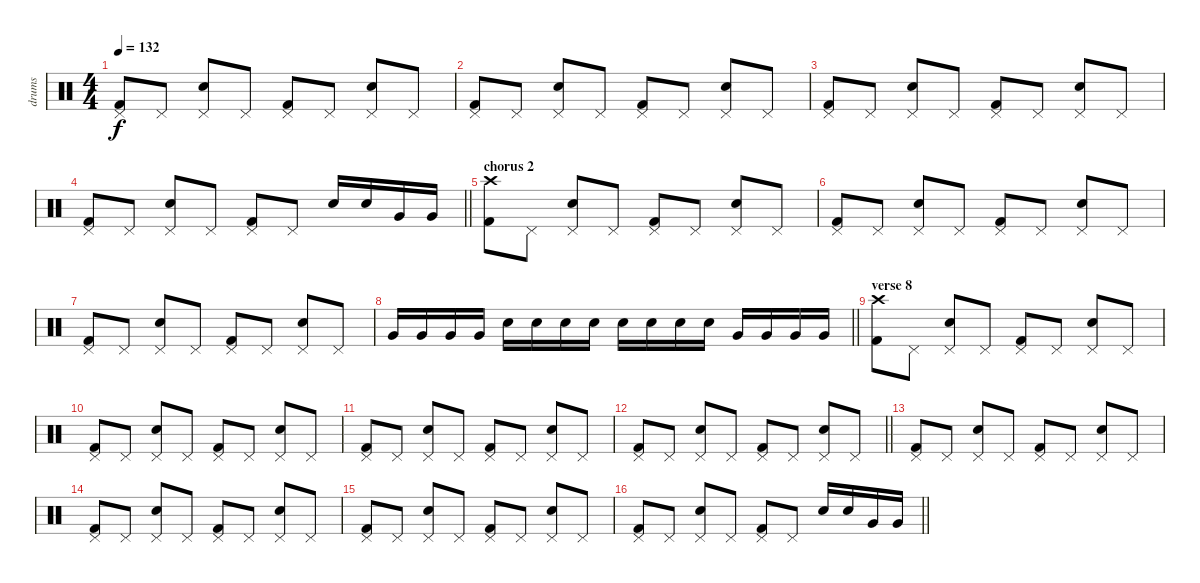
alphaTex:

\track ("drums" "drums") {instrument percussion}
\staff {score}
\articulation defaults
\ts (4 4)
\tempo 132
\clef neutral
\ks c
("Kick (hit) 2" "Pedal Hi-Hat (hit)").8{dy f} "Pedal Hi-Hat (hit)".8 ("Electric Snare (hit)" "Pedal Hi-Hat (hit)").8 "Pedal Hi-Hat (hit)".8 ("Kick (hit) 2" "Pedal Hi-Hat (hit)").8 "Pedal Hi-Hat (hit)".8 ("Electric Snare (hit)" "Pedal Hi-Hat (hit)").8 "Pedal Hi-Hat (hit)".8 |
("Kick (hit) 2" "Pedal Hi-Hat (hit)").8 "Pedal Hi-Hat (hit)".8 ("Electric Snare (hit)" "Pedal Hi-Hat (hit)").8 "Pedal Hi-Hat (hit)".8 ("Kick (hit) 2" "Pedal Hi-Hat (hit)").8 "Pedal Hi-Hat (hit)".8 ("Electric Snare (hit)" "Pedal Hi-Hat (hit)").8 "Pedal Hi-Hat (hit)".8 |
("Kick (hit) 2" "Pedal Hi-Hat (hit)").8 "Pedal Hi-Hat (hit)".8 ("Electric Snare (hit)" "Pedal Hi-Hat (hit)").8 "Pedal Hi-Hat (hit)".8 ("Kick (hit) 2" "Pedal Hi-Hat (hit)").8 "Pedal Hi-Hat (hit)".8 ("Electric Snare (hit)" "Pedal Hi-Hat (hit)").8 "Pedal Hi-Hat (hit)".8 |
\barLineRight lightlight
("Kick (hit) 2" "Pedal Hi-Hat (hit)").8 "Pedal Hi-Hat (hit)".8 ("Electric Snare (hit)" "Pedal Hi-Hat (hit)").8 "Pedal Hi-Hat (hit)".8 ("Kick (hit) 2" "Pedal Hi-Hat (hit)").8 "Pedal Hi-Hat (hit)".8 "Electric Snare (hit)".16 "Electric Snare (hit)".16 "Very Low Tom (hit)".16 "Very Low Tom (hit)".16 |
\section ("" "chorus 2")
("Kick (hit) 2" "Crash high (hit)").8 "Pedal Hi-Hat (hit)".8 ("Electric Snare (hit)" "Pedal Hi-Hat (hit)").8 "Pedal Hi-Hat (hit)".8 ("Kick (hit) 2" "Pedal Hi-Hat (hit)").8 "Pedal Hi-Hat (hit)".8 ("Electric Snare (hit)" "Pedal Hi-Hat (hit)").8 "Pedal Hi-Hat (hit)".8 |
("Kick (hit) 2" "Pedal Hi-Hat (hit)").8 "Pedal Hi-Hat (hit)".8 ("Electric Snare (hit)" "Pedal Hi-Hat (hit)").8 "Pedal Hi-Hat (hit)".8 ("Kick (hit) 2" "Pedal Hi-Hat (hit)").8 "Pedal Hi-Hat (hit)".8 ("Electric Snare (hit)" "Pedal Hi-Hat (hit)").8 "Pedal Hi-Hat (hit)".8 |
("Kick (hit) 2" "Pedal Hi-Hat (hit)").8 "Pedal Hi-Hat (hit)".8 ("Electric Snare (hit)" "Pedal Hi-Hat (hit)").8 "Pedal Hi-Hat (hit)".8 ("Kick (hit) 2" "Pedal Hi-Hat (hit)").8 "Pedal Hi-Hat (hit)".8 ("Electric Snare (hit)" "Pedal Hi-Hat (hit)").8 "Pedal Hi-Hat (hit)".8 |
\barLineRight lightlight "Very Low Tom (hit)".16 "Very Low Tom (hit)".16 "Very Low Tom (hit)".16 "Very Low Tom (hit)".16 "Electric Snare (hit)".16 "Electric Snare (hit)".16 "Electric Snare (hit)".16 "Electric Snare (hit)".16 "Electric Snare (hit)".16 "Electric Snare (hit)".16 "Electric Snare (hit)".16 "Electric Snare (hit)".16 "Very Low Tom (hit)".16 "Very Low Tom (hit)".16 "Very Low Tom (hit)".16 "Very Low Tom (hit)".16
|
\section ("" "verse 8")
("Kick (hit) 2" "Crash high (hit)").8 "Pedal Hi-Hat (hit)".8 ("Electric Snare (hit)" "Pedal Hi-Hat (hit)").8 "Pedal Hi-Hat (hit)".8 ("Kick (hit) 2" "Pedal Hi-Hat (hit)").8 "Pedal Hi-Hat (hit)".8 ("Electric Snare (hit)" "Pedal Hi-Hat (hit)").8 "Pedal Hi-Hat (hit)".8 |
("Kick (hit) 2" "Pedal Hi-Hat (hit)").8 "Pedal Hi-Hat (hit)".8 ("Electric Snare (hit)" "Pedal Hi-Hat (hit)").8 "Pedal Hi-Hat (hit)".8 ("Kick (hit) 2" "Pedal Hi-Hat (hit)").8 "Pedal Hi-Hat (hit)".8 ("Electric Snare (hit)" "Pedal Hi-Hat (hit)").8 "Pedal Hi-Hat (hit)".8 |
("Kick (hit) 2" "Pedal Hi-Hat (hit)").8 "Pedal Hi-Hat (hit)".8 ("Electric Snare (hit)" "Pedal Hi-Hat (hit)").8 "Pedal Hi-Hat (hit)".8 ("Kick (hit) 2" "Pedal Hi-Hat (hit)").8 "Pedal Hi-Hat (hit)".8 ("Electric Snare (hit)" "Pedal Hi-Hat (hit)").8 "Pedal Hi-Hat (hit)".8 |
\barLineRight lightlight
("Kick (hit) 2" "Pedal Hi-Hat (hit)").8 "Pedal Hi-Hat (hit)".8 ("Electric Snare (hit)" "Pedal Hi-Hat (hit)").8 "Pedal Hi-Hat (hit)".8 ("Kick (hit) 2" "Pedal Hi-Hat (hit)").8 "Pedal Hi-Hat (hit)".8 ("Electric Snare (hit)" "Pedal Hi-Hat (hit)").8 "Pedal Hi-Hat (hit)".8 |
("Kick (hit) 2" "Pedal Hi-Hat (hit)").8 "Pedal Hi-Hat (hit)".8 ("Electric Snare (hit)" "Pedal Hi-Hat (hit)").8 "Pedal Hi-Hat (hit)".8 ("Kick (hit) 2" "Pedal Hi-Hat (hit)").8 "Pedal Hi-Hat (hit)".8 ("Electric Snare (hit)" "Pedal Hi-Hat (hit)").8 "Pedal Hi-Hat (hit)".8 |
("Kick (hit) 2" "Pedal Hi-Hat (hit)").8 "Pedal Hi-Hat (hit)".8 ("Electric Snare (hit)" "Pedal Hi-Hat (hit)").8 "Pedal Hi-Hat (hit)".8 ("Kick (hit) 2" "Pedal Hi-Hat (hit)").8 "Pedal Hi-Hat (hit)".8 ("Electric Snare (hit)" "Pedal Hi-Hat (hit)").8 "Pedal Hi-Hat (hit)".8 |
("Kick (hit) 2" "Pedal Hi-Hat (hit)").8 "Pedal Hi-Hat (hit)".8 ("Electric Snare (hit)" "Pedal Hi-Hat (hit)").8 "Pedal Hi-Hat (hit)".8 ("Kick (hit) 2" "Pedal Hi-Hat (hit)").8 "Pedal Hi-Hat (hit)".8 ("Electric Snare (hit)" "Pedal Hi-Hat (hit)").8 "Pedal Hi-Hat (hit)".8 |
\barLineRight lightlight
("Kick (hit) 2" "Pedal Hi-Hat (hit)").8 "Pedal Hi-Hat (hit)".8 ("Electric Snare (hit)" "Pedal Hi-Hat (hit)").8 "Pedal Hi-Hat (hit)".8 ("Kick (hit) 2" "Pedal Hi-Hat (hit)").8 "Pedal Hi-Hat (hit)".8 "Electric Snare (hit)".16 "Electric Snare (hit)".16 "Very Low Tom (hit)".16 "Very Low Tom (hit)".16
